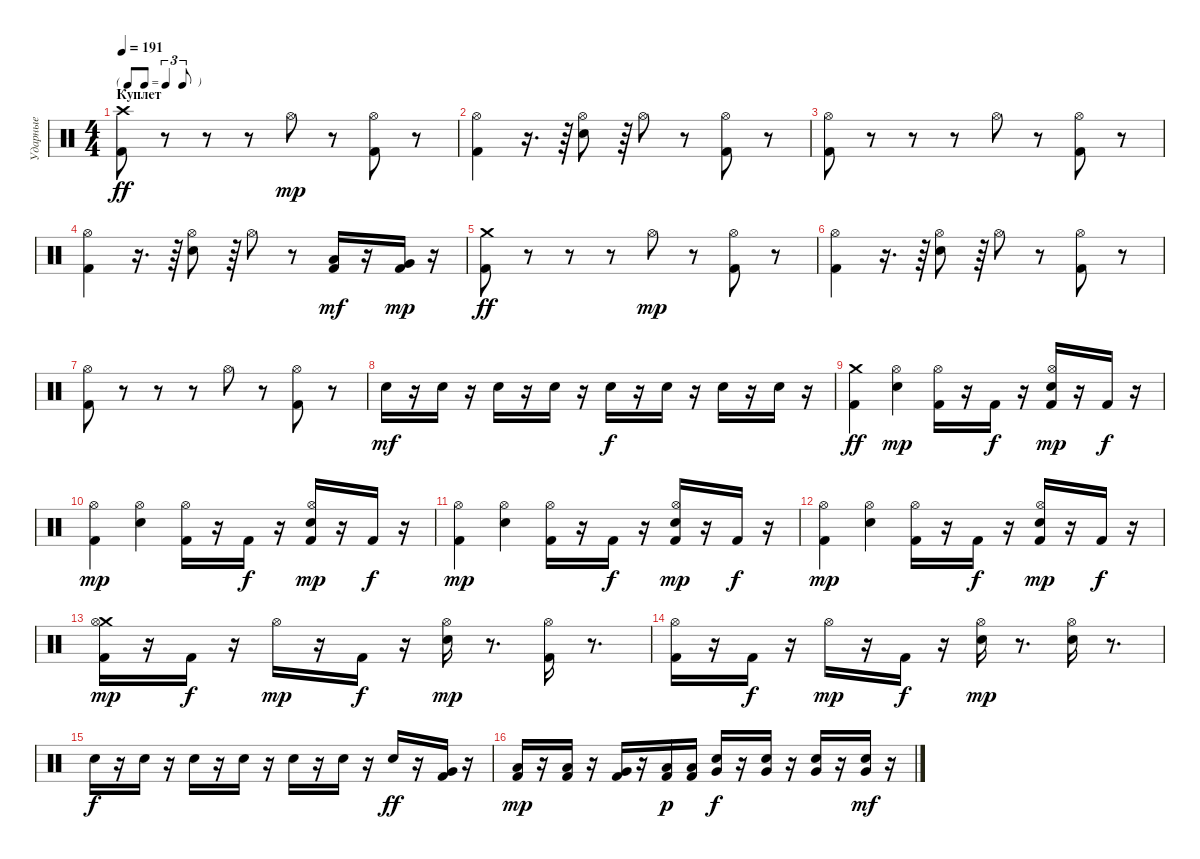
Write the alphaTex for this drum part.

\track ("Ударные" "Ударные") {instrument percussion}
\staff {score}
\articulation defaults
\ts (4 4)
\tf triplet8th
\section ("" "Куплет")
\tempo 191
\clef neutral
\ks c
("Crash high (hit)" "Kick (hit) 2").8{dy ff} r.8 r.8 r.8 "Hi-Hat (open)".8{dy mp} r.8 ("Hi-Hat (open)" "Kick (hit) 2").8 r.8 |
("Hi-Hat (open)" "Kick (hit) 2").4 r.16{d} r.64 ("Snare (hit) 2" "Hi-Hat (open)").8 r.64 "Hi-Hat (open)".8 r.8 ("Hi-Hat (open)" "Kick (hit) 2").8 r.8 |
("Hi-Hat (open)" "Kick (hit) 2").8 r.8 r.8 r.8 "Hi-Hat (open)".8 r.8 ("Hi-Hat (open)" "Kick (hit) 2").8 r.8 |
("Hi-Hat (open)" "Kick (hit) 2").4 r.16{d} r.64 ("Snare (hit) 2" "Hi-Hat (open)").8 r.64 "Hi-Hat (open)".8 r.8 ("Low Tom (hit)" "Kick (hit) 2").16{dy mf} r.16 ("Very Low Tom (hit)" "Kick (hit) 2").16{dy mp} r.16 |
("Crash medium (hit)" "Kick (hit) 2").8{dy ff} r.8 r.8 r.8 "Hi-Hat (open)".8{dy mp} r.8 ("Hi-Hat (open)" "Kick (hit) 2").8 r.8 |
("Hi-Hat (open)" "Kick (hit) 2").4 r.16{d} r.64 ("Snare (hit) 2" "Hi-Hat (open)").8 r.64 "Hi-Hat (open)".8 r.8 ("Hi-Hat (open)" "Kick (hit) 2").8 r.8 |
("Hi-Hat (open)" "Kick (hit) 2").8 r.8 r.8 r.8 "Hi-Hat (open)".8 r.8 ("Hi-Hat (open)" "Kick (hit) 2").8 r.8 |
"Snare (hit) 2".16{dy mf} r.16 "Snare (hit) 2".16 r.16 "Snare (hit) 2".16 r.16 "Snare (hit) 2".16 r.16 "Snare (hit) 2".16{dy f} r.16 "Snare (hit) 2".16 r.16 "Snare (hit) 2".16 r.16 "Snare (hit) 2".16 r.16 |
("Crash medium (hit)" "Kick (hit) 2").4{dy ff} ("Snare (hit) 2" "Hi-Hat (open)").4{dy mp} ("Kick (hit) 2" "Hi-Hat (open)").16 r.16 "Kick (hit) 2".16{dy f} r.16 ("Snare (hit) 2" "Kick (hit) 2" "Hi-Hat (open)").16{dy mp} r.16 "Kick (hit) 2".16{dy f} r.16 |
("Kick (hit) 2" "Hi-Hat (open)").4{dy mp} ("Snare (hit) 2" "Hi-Hat (open)").4 ("Kick (hit) 2" "Hi-Hat (open)").16 r.16 "Kick (hit) 2".16{dy f} r.16 ("Snare (hit) 2" "Kick (hit) 2" "Hi-Hat (open)").16{dy mp} r.16 "Kick (hit) 2".16{dy f} r.16 |
("Kick (hit) 2" "Hi-Hat (open)").4{dy mp} ("Snare (hit) 2" "Hi-Hat (open)").4 ("Kick (hit) 2" "Hi-Hat (open)").16 r.16 "Kick (hit) 2".16{dy f} r.16 ("Snare (hit) 2" "Kick (hit) 2" "Hi-Hat (open)").16{dy mp} r.16 "Kick (hit) 2".16{dy f} r.16 |
("Kick (hit) 2" "Hi-Hat (open)").4{dy mp} ("Snare (hit) 2" "Hi-Hat (open)").4 ("Kick (hit) 2" "Hi-Hat (open)").16 r.16 "Kick (hit) 2".16{dy f} r.16 ("Snare (hit) 2" "Kick (hit) 2" "Hi-Hat (open)").16{dy mp} r.16 "Kick (hit) 2".16{dy f} r.16 |
("Crash medium (hit)" "Kick (hit) 2" "Hi-Hat (open)").16{dy mp} r.16 "Kick (hit) 2".16{dy f} r.16 "Hi-Hat (open)".16{dy mp} r.16 "Kick (hit) 2".16{dy f} r.16 ("Snare (hit) 2" "Hi-Hat (open)").16{dy mp} r.8{d} ("Kick (hit) 2" "Hi-Hat (open)").16 r.8{d} |
("Kick (hit) 2" "Hi-Hat (open)").16 r.16 "Kick (hit) 2".16{dy f} r.16 "Hi-Hat (open)".16{dy mp} r.16 "Kick (hit) 2".16{dy f} r.16 ("Snare (hit) 2" "Hi-Hat (open)").16{dy mp} r.8{d} ("Snare (hit) 2" "Hi-Hat (open)").16 r.8{d} |
"Snare (hit) 2".16{dy f} r.16 "Snare (hit) 2".16 r.16 "Snare (hit) 2".16 r.16 "Snare (hit) 2".16 r.16 "Snare (hit) 2".16 r.16 "Snare (hit) 2".16 r.16 "Snare (hit) 2".16{dy ff} r.16 ("Very Low Tom (hit)" "Kick (hit) 2").16 r.16 |
("Low Tom (hit)" "Kick (hit) 2").16{dy mp} r.16 ("Low Tom (hit)" "Kick (hit) 2").16 r.16 ("Very Low Tom (hit)" "Kick (hit) 2").16 r.16 ("Low Floor Tom (hit)" "Kick (hit) 2").16{dy p} ("Low Floor Tom (hit)" "Kick (hit) 2").16 ("Snare (hit) 2" "Very Low Tom (hit)").16{dy f} r.16 ("Snare (hit) 2" "Very Low Tom (hit)").16 r.16 ("Snare (hit) 2" "Very Low Tom (hit)").16 r.16 ("Snare (hit) 2" "Very Low Tom (hit)").16{dy mf} r.16
